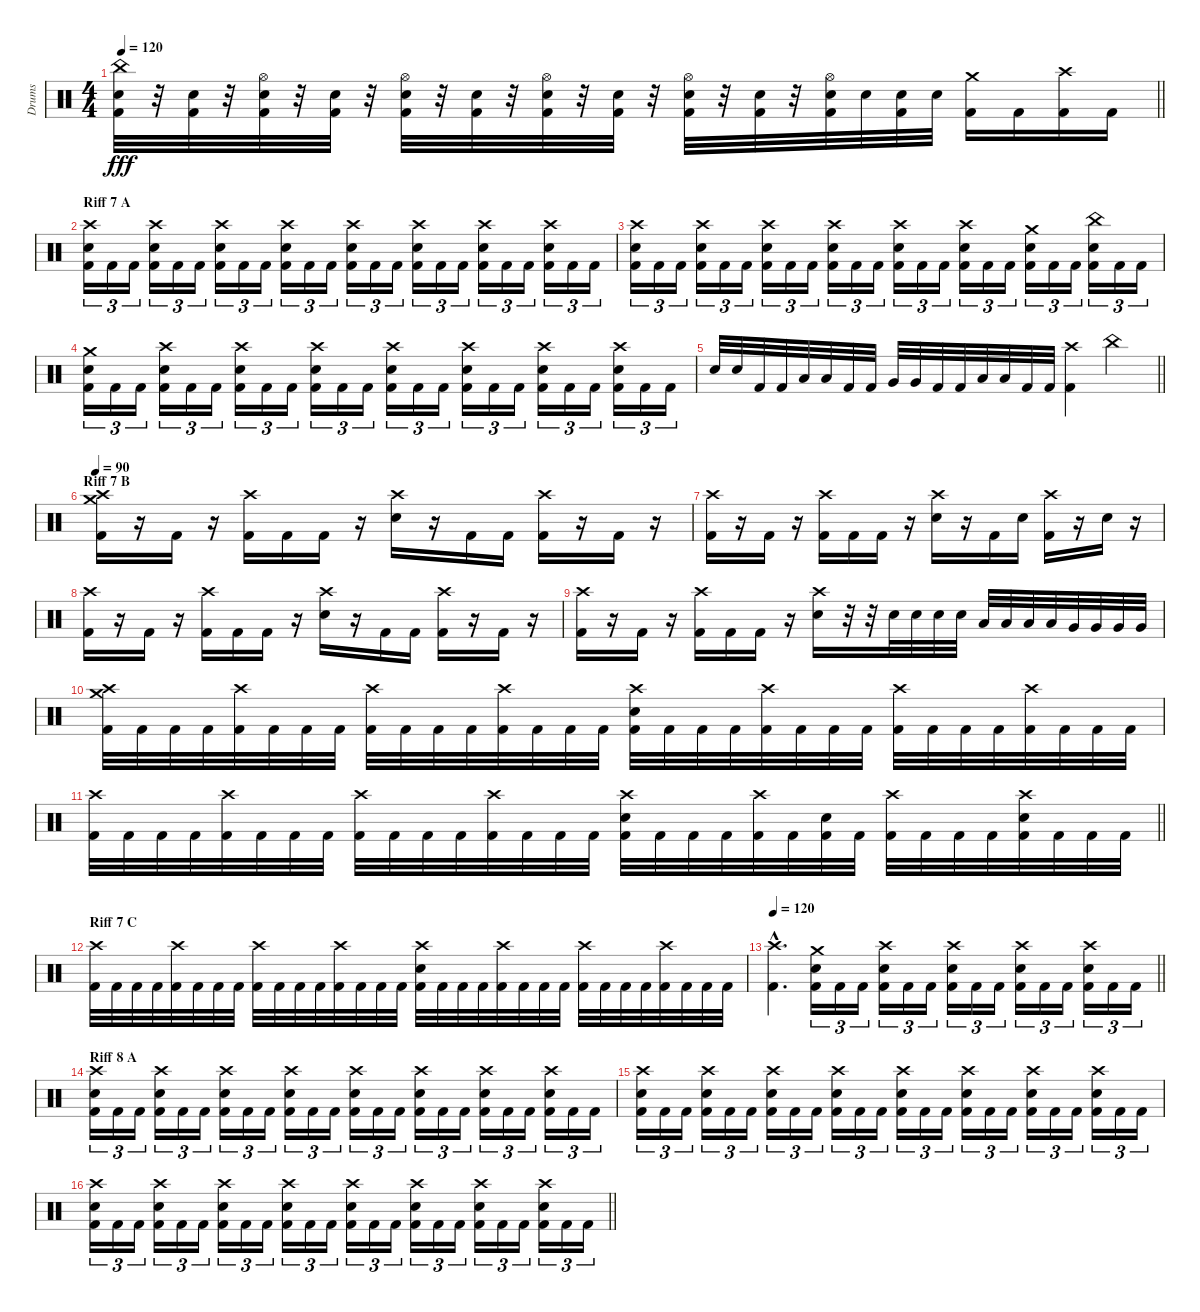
\track ("Drums" "Drums") {instrument percussion}
\staff {score}
\articulation defaults
\ts (4 4)
\tempo 120
\clef neutral
\barLineRight lightlight
\ks c
("China (hit)" "Electric Snare (hit)" "Kick (hit) 2").32{dy fff} r.32 ("Electric Snare (hit)" "Kick (hit) 2").32 r.32 ("Hi-Hat (open)" "Electric Snare (hit)" "Kick (hit) 2").32 r.32 ("Electric Snare (hit)" "Kick (hit) 2").32 r.32 ("Hi-Hat (open)" "Electric Snare (hit)" "Kick (hit) 2").32 r.32 ("Electric Snare (hit)" "Kick (hit) 2").32 r.32 ("Hi-Hat (open)" "Electric Snare (hit)" "Kick (hit) 2").32 r.32 ("Electric Snare (hit)" "Kick (hit) 2").32 r.32 ("Hi-Hat (open)" "Electric Snare (hit)" "Kick (hit) 2").32 r.32 ("Electric Snare (hit)" "Kick (hit) 2").32 r.32 ("Hi-Hat (open)" "Electric Snare (hit)" "Kick (hit) 2").32 "Electric Snare (hit)".32 ("Electric Snare (hit)" "Kick (hit) 2").32 "Electric Snare (hit)".32 ("Crash medium (hit)" "Kick (hit) 2").16 "Kick (hit) 2".16 ("Crash high (hit)" "Kick (hit) 2").16 "Kick (hit) 2".16 |
\section ("" "Riff 7 A")
("Crash high (hit)" "Electric Snare (hit)" "Kick (hit) 2").16{tu (3 2)} "Kick (hit) 2".16{tu (3 2)} "Kick (hit) 2".16{tu (3 2)} ("Crash high (hit)" "Electric Snare (hit)" "Kick (hit) 2").16{tu (3 2)} "Kick (hit) 2".16{tu (3 2)} "Kick (hit) 2".16{tu (3 2)} ("Crash high (hit)" "Electric Snare (hit)" "Kick (hit) 2").16{tu (3 2)} "Kick (hit) 2".16{tu (3 2)} "Kick (hit) 2".16{tu (3 2)} ("Crash high (hit)" "Electric Snare (hit)" "Kick (hit) 2").16{tu (3 2)} "Kick (hit) 2".16{tu (3 2)} "Kick (hit) 2".16{tu (3 2)} ("Crash high (hit)" "Electric Snare (hit)" "Kick (hit) 2").16{tu (3 2)} "Kick (hit) 2".16{tu (3 2)} "Kick (hit) 2".16{tu (3 2)} ("Crash high (hit)" "Electric Snare (hit)" "Kick (hit) 2").16{tu (3 2)} "Kick (hit) 2".16{tu (3 2)} "Kick (hit) 2".16{tu (3 2)} ("Crash high (hit)" "Electric Snare (hit)" "Kick (hit) 2").16{tu (3 2)} "Kick (hit) 2".16{tu (3 2)} "Kick (hit) 2".16{tu (3 2)} ("Crash high (hit)" "Electric Snare (hit)" "Kick (hit) 2").16{tu (3 2)} "Kick (hit) 2".16{tu (3 2)} "Kick (hit) 2".16{tu (3 2)} |
("Crash high (hit)" "Electric Snare (hit)" "Kick (hit) 2").16{tu (3 2)} "Kick (hit) 2".16{tu (3 2)} "Kick (hit) 2".16{tu (3 2)} ("Crash high (hit)" "Electric Snare (hit)" "Kick (hit) 2").16{tu (3 2)} "Kick (hit) 2".16{tu (3 2)} "Kick (hit) 2".16{tu (3 2)} ("Crash high (hit)" "Electric Snare (hit)" "Kick (hit) 2").16{tu (3 2)} "Kick (hit) 2".16{tu (3 2)} "Kick (hit) 2".16{tu (3 2)} ("Crash high (hit)" "Electric Snare (hit)" "Kick (hit) 2").16{tu (3 2)} "Kick (hit) 2".16{tu (3 2)} "Kick (hit) 2".16{tu (3 2)} ("Crash high (hit)" "Electric Snare (hit)" "Kick (hit) 2").16{tu (3 2)} "Kick (hit) 2".16{tu (3 2)} "Kick (hit) 2".16{tu (3 2)} ("Crash high (hit)" "Electric Snare (hit)" "Kick (hit) 2").16{tu (3 2)} "Kick (hit) 2".16{tu (3 2)} "Kick (hit) 2".16{tu (3 2)} ("Crash medium (hit)" "Electric Snare (hit)" "Kick (hit) 2").16{tu (3 2)} "Kick (hit) 2".16{tu (3 2)} "Kick (hit) 2".16{tu (3 2)} ("China (hit)" "Electric Snare (hit)" "Kick (hit) 2").16{tu (3 2)} "Kick (hit) 2".16{tu (3 2)} "Kick (hit) 2".16{tu (3 2)} |
("Crash medium (hit)" "Electric Snare (hit)" "Kick (hit) 2").16{tu (3 2)} "Kick (hit) 2".16{tu (3 2)} "Kick (hit) 2".16{tu (3 2)} ("Crash high (hit)" "Electric Snare (hit)" "Kick (hit) 2").16{tu (3 2)} "Kick (hit) 2".16{tu (3 2)} "Kick (hit) 2".16{tu (3 2)} ("Crash high (hit)" "Electric Snare (hit)" "Kick (hit) 2").16{tu (3 2)} "Kick (hit) 2".16{tu (3 2)} "Kick (hit) 2".16{tu (3 2)} ("Crash high (hit)" "Electric Snare (hit)" "Kick (hit) 2").16{tu (3 2)} "Kick (hit) 2".16{tu (3 2)} "Kick (hit) 2".16{tu (3 2)} ("Crash high (hit)" "Electric Snare (hit)" "Kick (hit) 2").16{tu (3 2)} "Kick (hit) 2".16{tu (3 2)} "Kick (hit) 2".16{tu (3 2)} ("Crash high (hit)" "Electric Snare (hit)" "Kick (hit) 2").16{tu (3 2)} "Kick (hit) 2".16{tu (3 2)} "Kick (hit) 2".16{tu (3 2)} ("Crash high (hit)" "Electric Snare (hit)" "Kick (hit) 2").16{tu (3 2)} "Kick (hit) 2".16{tu (3 2)} "Kick (hit) 2".16{tu (3 2)} ("Crash high (hit)" "Electric Snare (hit)" "Kick (hit) 2").16{tu (3 2)} "Kick (hit) 2".16{tu (3 2)} "Kick (hit) 2".16{tu (3 2)} |
\barLineRight lightlight "Electric Snare (hit)".32 "Electric Snare (hit)".32 "Kick (hit) 2".32 "Kick (hit) 2".32 "Low Tom (hit)".32 "Low Tom (hit)".32 "Kick (hit) 2".32 "Kick (hit) 2".32 "Very Low Tom (hit)".32 "Very Low Tom (hit)".32 "Kick (hit) 2".32 "Kick (hit) 2".32 "Low Floor Tom (hit)".32 "Low Floor Tom (hit)".32 "Kick (hit) 2".32 "Kick (hit) 2".32
("Crash high (hit)" "Kick (hit) 2").4 "China (hit)".4 |
\section ("" "Riff 7 B")
\tempo 90
("Crash high (hit)" "Crash medium (hit)" "Kick (hit) 2").16 r.16 "Kick (hit) 2".16 r.16 ("Crash high (hit)" "Kick (hit) 2").16 "Kick (hit) 2".16 "Kick (hit) 2".16 r.16 ("Crash high (hit)" "Electric Snare (hit)").16 r.16 "Kick (hit) 2".16 "Kick (hit) 2".16 ("Crash high (hit)" "Kick (hit) 2").16 r.16 "Kick (hit) 2".16 r.16 |
("Crash high (hit)" "Kick (hit) 2").16 r.16 "Kick (hit) 2".16 r.16 ("Crash high (hit)" "Kick (hit) 2").16 "Kick (hit) 2".16 "Kick (hit) 2".16 r.16 ("Crash high (hit)" "Electric Snare (hit)").16 r.16 "Kick (hit) 2".16 "Electric Snare (hit)".16 ("Crash high (hit)" "Kick (hit) 2").16 r.16 "Electric Snare (hit)".16 r.16 |
("Crash high (hit)" "Kick (hit) 2").16 r.16 "Kick (hit) 2".16 r.16 ("Crash high (hit)" "Kick (hit) 2").16 "Kick (hit) 2".16 "Kick (hit) 2".16 r.16 ("Crash high (hit)" "Electric Snare (hit)").16 r.16 "Kick (hit) 2".16 "Kick (hit) 2".16 ("Crash high (hit)" "Kick (hit) 2").16 r.16 "Kick (hit) 2".16 r.16 |
("Crash high (hit)" "Kick (hit) 2").16 r.16 "Kick (hit) 2".16 r.16 ("Crash high (hit)" "Kick (hit) 2").16 "Kick (hit) 2".16 "Kick (hit) 2".16 r.16 ("Crash high (hit)" "Electric Snare (hit)").16 r.32 r.32 "Electric Snare (hit)".32 "Electric Snare (hit)".32 "Electric Snare (hit)".32 "Electric Snare (hit)".32 "Low Tom (hit)".32 "Low Tom (hit)".32 "Low Tom (hit)".32 "Low Tom (hit)".32 "Very Low Tom (hit)".32 "Very Low Tom (hit)".32 "Very Low Tom (hit)".32 "Very Low Tom (hit)".32 |
("Crash high (hit)" "Crash medium (hit)" "Kick (hit) 2").32 "Kick (hit) 2".32 "Kick (hit) 2".32 "Kick (hit) 2".32 ("Crash high (hit)" "Kick (hit) 2").32 "Kick (hit) 2".32 "Kick (hit) 2".32 "Kick (hit) 2".32 ("Crash high (hit)" "Kick (hit) 2").32 "Kick (hit) 2".32 "Kick (hit) 2".32 "Kick (hit) 2".32 ("Crash high (hit)" "Kick (hit) 2").32 "Kick (hit) 2".32 "Kick (hit) 2".32 "Kick (hit) 2".32 ("Crash high (hit)" "Electric Snare (hit)" "Kick (hit) 2").32 "Kick (hit) 2".32 "Kick (hit) 2".32 "Kick (hit) 2".32 ("Crash high (hit)" "Kick (hit) 2").32 "Kick (hit) 2".32 "Kick (hit) 2".32 "Kick (hit) 2".32 ("Crash high (hit)" "Kick (hit) 2").32 "Kick (hit) 2".32 "Kick (hit) 2".32 "Kick (hit) 2".32 ("Crash high (hit)" "Kick (hit) 2").32 "Kick (hit) 2".32 "Kick (hit) 2".32 "Kick (hit) 2".32 |
\barLineRight lightlight
("Crash high (hit)" "Kick (hit) 2").32 "Kick (hit) 2".32 "Kick (hit) 2".32 "Kick (hit) 2".32 ("Crash high (hit)" "Kick (hit) 2").32 "Kick (hit) 2".32 "Kick (hit) 2".32 "Kick (hit) 2".32 ("Crash high (hit)" "Kick (hit) 2").32 "Kick (hit) 2".32 "Kick (hit) 2".32 "Kick (hit) 2".32 ("Crash high (hit)" "Kick (hit) 2").32 "Kick (hit) 2".32 "Kick (hit) 2".32 "Kick (hit) 2".32 ("Crash high (hit)" "Electric Snare (hit)" "Kick (hit) 2").32 "Kick (hit) 2".32 "Kick (hit) 2".32 "Kick (hit) 2".32 ("Crash high (hit)" "Kick (hit) 2").32 "Kick (hit) 2".32 ("Electric Snare (hit)" "Kick (hit) 2").32 "Kick (hit) 2".32 ("Crash high (hit)" "Kick (hit) 2").32 "Kick (hit) 2".32 "Kick (hit) 2".32 "Kick (hit) 2".32 ("Crash high (hit)" "Electric Snare (hit)" "Kick (hit) 2").32 "Kick (hit) 2".32 "Kick (hit) 2".32 "Kick (hit) 2".32 |
\section ("" "Riff 7 C")
("Crash high (hit)" "Kick (hit) 2").32 "Kick (hit) 2".32 "Kick (hit) 2".32 "Kick (hit) 2".32 ("Crash high (hit)" "Kick (hit) 2").32 "Kick (hit) 2".32 "Kick (hit) 2".32 "Kick (hit) 2".32 ("Crash high (hit)" "Kick (hit) 2").32 "Kick (hit) 2".32 "Kick (hit) 2".32 "Kick (hit) 2".32 ("Crash high (hit)" "Kick (hit) 2").32 "Kick (hit) 2".32 "Kick (hit) 2".32 "Kick (hit) 2".32 ("Crash high (hit)" "Electric Snare (hit)" "Kick (hit) 2").32 "Kick (hit) 2".32 "Kick (hit) 2".32 "Kick (hit) 2".32 ("Crash high (hit)" "Kick (hit) 2").32 "Kick (hit) 2".32 "Kick (hit) 2".32 "Kick (hit) 2".32 ("Crash high (hit)" "Kick (hit) 2").32 "Kick (hit) 2".32 "Kick (hit) 2".32 "Kick (hit) 2".32 ("Crash high (hit)" "Kick (hit) 2").32 "Kick (hit) 2".32 "Kick (hit) 2".32 "Kick (hit) 2".32 |
\tempo 120
\barLineRight lightlight
("Crash high (hit)"{hac} "Kick (hit) 2"{hac}).4{d} ("Crash medium (hit)" "Electric Snare (hit)" "Kick (hit) 2").16{tu (3 2)} "Kick (hit) 2".16{tu (3 2)} "Kick (hit) 2".16{tu (3 2)} ("Crash high (hit)" "Electric Snare (hit)" "Kick (hit) 2").16{tu (3 2)} "Kick (hit) 2".16{tu (3 2)} "Kick (hit) 2".16{tu (3 2)} ("Crash high (hit)" "Electric Snare (hit)" "Kick (hit) 2").16{tu (3 2)} "Kick (hit) 2".16{tu (3 2)} "Kick (hit) 2".16{tu (3 2)} ("Crash high (hit)" "Electric Snare (hit)" "Kick (hit) 2").16{tu (3 2)} "Kick (hit) 2".16{tu (3 2)} "Kick (hit) 2".16{tu (3 2)} ("Crash high (hit)" "Electric Snare (hit)" "Kick (hit) 2").16{tu (3 2)} "Kick (hit) 2".16{tu (3 2)} "Kick (hit) 2".16{tu (3 2)} |
\section ("" "Riff 8 A")
("Crash high (hit)" "Electric Snare (hit)" "Kick (hit) 2").16{tu (3 2)} "Kick (hit) 2".16{tu (3 2)} "Kick (hit) 2".16{tu (3 2)} ("Crash high (hit)" "Electric Snare (hit)" "Kick (hit) 2").16{tu (3 2)} "Kick (hit) 2".16{tu (3 2)} "Kick (hit) 2".16{tu (3 2)} ("Crash high (hit)" "Electric Snare (hit)" "Kick (hit) 2").16{tu (3 2)} "Kick (hit) 2".16{tu (3 2)} "Kick (hit) 2".16{tu (3 2)} ("Crash high (hit)" "Electric Snare (hit)" "Kick (hit) 2").16{tu (3 2)} "Kick (hit) 2".16{tu (3 2)} "Kick (hit) 2".16{tu (3 2)} ("Crash high (hit)" "Electric Snare (hit)" "Kick (hit) 2").16{tu (3 2)} "Kick (hit) 2".16{tu (3 2)} "Kick (hit) 2".16{tu (3 2)} ("Crash high (hit)" "Electric Snare (hit)" "Kick (hit) 2").16{tu (3 2)} "Kick (hit) 2".16{tu (3 2)} "Kick (hit) 2".16{tu (3 2)} ("Crash high (hit)" "Electric Snare (hit)" "Kick (hit) 2").16{tu (3 2)} "Kick (hit) 2".16{tu (3 2)} "Kick (hit) 2".16{tu (3 2)} ("Crash high (hit)" "Electric Snare (hit)" "Kick (hit) 2").16{tu (3 2)} "Kick (hit) 2".16{tu (3 2)} "Kick (hit) 2".16{tu (3 2)} |
("Crash high (hit)" "Electric Snare (hit)" "Kick (hit) 2").16{tu (3 2)} "Kick (hit) 2".16{tu (3 2)} "Kick (hit) 2".16{tu (3 2)} ("Crash high (hit)" "Electric Snare (hit)" "Kick (hit) 2").16{tu (3 2)} "Kick (hit) 2".16{tu (3 2)} "Kick (hit) 2".16{tu (3 2)} ("Crash high (hit)" "Electric Snare (hit)" "Kick (hit) 2").16{tu (3 2)} "Kick (hit) 2".16{tu (3 2)} "Kick (hit) 2".16{tu (3 2)} ("Crash high (hit)" "Electric Snare (hit)" "Kick (hit) 2").16{tu (3 2)} "Kick (hit) 2".16{tu (3 2)} "Kick (hit) 2".16{tu (3 2)} ("Crash high (hit)" "Electric Snare (hit)" "Kick (hit) 2").16{tu (3 2)} "Kick (hit) 2".16{tu (3 2)} "Kick (hit) 2".16{tu (3 2)} ("Crash high (hit)" "Electric Snare (hit)" "Kick (hit) 2").16{tu (3 2)} "Kick (hit) 2".16{tu (3 2)} "Kick (hit) 2".16{tu (3 2)} ("Crash high (hit)" "Electric Snare (hit)" "Kick (hit) 2").16{tu (3 2)} "Kick (hit) 2".16{tu (3 2)} "Kick (hit) 2".16{tu (3 2)} ("Crash high (hit)" "Electric Snare (hit)" "Kick (hit) 2").16{tu (3 2)} "Kick (hit) 2".16{tu (3 2)} "Kick (hit) 2".16{tu (3 2)} |
\barLineRight lightlight
("Crash high (hit)" "Electric Snare (hit)" "Kick (hit) 2").16{tu (3 2)} "Kick (hit) 2".16{tu (3 2)} "Kick (hit) 2".16{tu (3 2)} ("Crash high (hit)" "Electric Snare (hit)" "Kick (hit) 2").16{tu (3 2)} "Kick (hit) 2".16{tu (3 2)} "Kick (hit) 2".16{tu (3 2)} ("Crash high (hit)" "Electric Snare (hit)" "Kick (hit) 2").16{tu (3 2)} "Kick (hit) 2".16{tu (3 2)} "Kick (hit) 2".16{tu (3 2)} ("Crash high (hit)" "Electric Snare (hit)" "Kick (hit) 2").16{tu (3 2)} "Kick (hit) 2".16{tu (3 2)} "Kick (hit) 2".16{tu (3 2)} ("Crash high (hit)" "Electric Snare (hit)" "Kick (hit) 2").16{tu (3 2)} "Kick (hit) 2".16{tu (3 2)} "Kick (hit) 2".16{tu (3 2)} ("Crash high (hit)" "Electric Snare (hit)" "Kick (hit) 2").16{tu (3 2)} "Kick (hit) 2".16{tu (3 2)} "Kick (hit) 2".16{tu (3 2)} ("Crash high (hit)" "Electric Snare (hit)" "Kick (hit) 2").16{tu (3 2)} "Kick (hit) 2".16{tu (3 2)} "Kick (hit) 2".16{tu (3 2)} ("Crash high (hit)" "Electric Snare (hit)" "Kick (hit) 2").16{tu (3 2)} "Kick (hit) 2".16{tu (3 2)} "Kick (hit) 2".16{tu (3 2)}
